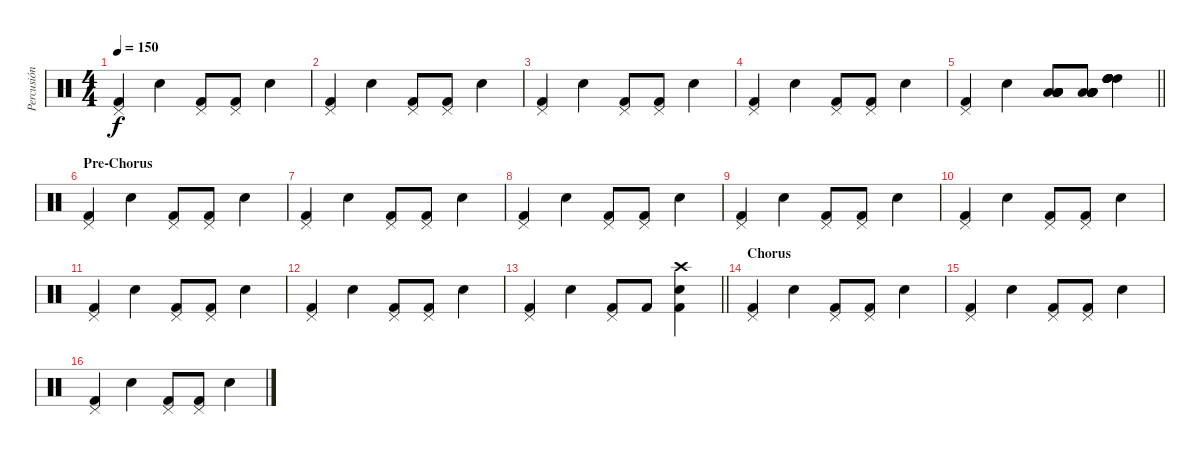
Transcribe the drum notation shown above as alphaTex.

\track ("Percusión" "Percusión") {instrument percussion}
\staff {score}
\articulation defaults
\ts (4 4)
\tempo 150
\clef neutral
\ks c
("Pedal Hi-Hat (hit)" "Kick (hit) 2").4{dy f} "Snare (hit) 2".4 ("Pedal Hi-Hat (hit)" "Kick (hit) 2").8 ("Pedal Hi-Hat (hit)" "Kick (hit) 2").8 "Snare (hit) 2".4 |
("Pedal Hi-Hat (hit)" "Kick (hit) 2").4 "Snare (hit) 2".4 ("Pedal Hi-Hat (hit)" "Kick (hit) 2").8 ("Pedal Hi-Hat (hit)" "Kick (hit) 2").8 "Snare (hit) 2".4 |
("Pedal Hi-Hat (hit)" "Kick (hit) 2").4 "Snare (hit) 2".4 ("Pedal Hi-Hat (hit)" "Kick (hit) 2").8 ("Pedal Hi-Hat (hit)" "Kick (hit) 2").8 "Snare (hit) 2".4 |
("Pedal Hi-Hat (hit)" "Kick (hit) 2").4 "Snare (hit) 2".4 ("Pedal Hi-Hat (hit)" "Kick (hit) 2").8 ("Pedal Hi-Hat (hit)" "Kick (hit) 2").8 "Snare (hit) 2".4 |
\barLineRight lightlight
("Pedal Hi-Hat (hit)" "Kick (hit) 2").4 "Snare (hit) 2".4 ("Low Tom (hit)" "Low Tom (hit)" "Low Tom (hit)" "Low Tom (hit)" "Low Tom (hit)" "Low Tom (hit)").8 ("Low Tom (hit)" "Low Tom (hit)" "Low Tom (hit)" "Low Tom (hit)" "Low Tom (hit)" "Low Tom (hit)").8 ("High Tom (hit)" "High Tom (hit)" "High Tom (hit)" "High Tom (hit)" "High Tom (hit)" "High Tom (hit)").4 |
\section ("" "Pre-Chorus")
("Pedal Hi-Hat (hit)" "Kick (hit) 2").4 "Snare (hit) 2".4 ("Pedal Hi-Hat (hit)" "Kick (hit) 2").8 ("Pedal Hi-Hat (hit)" "Kick (hit) 2").8 "Snare (hit) 2".4 |
("Pedal Hi-Hat (hit)" "Kick (hit) 2").4 "Snare (hit) 2".4 ("Pedal Hi-Hat (hit)" "Kick (hit) 2").8 ("Pedal Hi-Hat (hit)" "Kick (hit) 2").8 "Snare (hit) 2".4 |
("Pedal Hi-Hat (hit)" "Kick (hit) 2").4 "Snare (hit) 2".4 ("Pedal Hi-Hat (hit)" "Kick (hit) 2").8 ("Pedal Hi-Hat (hit)" "Kick (hit) 2").8 "Snare (hit) 2".4 |
("Pedal Hi-Hat (hit)" "Kick (hit) 2").4 "Snare (hit) 2".4 ("Pedal Hi-Hat (hit)" "Kick (hit) 2").8 ("Pedal Hi-Hat (hit)" "Kick (hit) 2").8 "Snare (hit) 2".4 |
("Pedal Hi-Hat (hit)" "Kick (hit) 2").4 "Snare (hit) 2".4 ("Pedal Hi-Hat (hit)" "Kick (hit) 2").8 ("Pedal Hi-Hat (hit)" "Kick (hit) 2").8 "Snare (hit) 2".4 |
("Pedal Hi-Hat (hit)" "Kick (hit) 2").4 "Snare (hit) 2".4 ("Pedal Hi-Hat (hit)" "Kick (hit) 2").8 ("Pedal Hi-Hat (hit)" "Kick (hit) 2").8 "Snare (hit) 2".4 |
("Pedal Hi-Hat (hit)" "Kick (hit) 2").4 "Snare (hit) 2".4 ("Pedal Hi-Hat (hit)" "Kick (hit) 2").8 ("Pedal Hi-Hat (hit)" "Kick (hit) 2").8 "Snare (hit) 2".4 |
\barLineRight lightlight
("Pedal Hi-Hat (hit)" "Kick (hit) 2").4 "Snare (hit) 2".4 ("Pedal Hi-Hat (hit)" "Kick (hit) 2").8 "Kick (hit) 2".8 ("Crash high (hit)" "Snare (hit) 2" "Kick (hit) 2").4 |
\section ("" "Chorus")
("Pedal Hi-Hat (hit)" "Kick (hit) 2").4 "Snare (hit) 2".4 ("Pedal Hi-Hat (hit)" "Kick (hit) 2").8 ("Pedal Hi-Hat (hit)" "Kick (hit) 2").8 "Snare (hit) 2".4 |
("Pedal Hi-Hat (hit)" "Kick (hit) 2").4 "Snare (hit) 2".4 ("Pedal Hi-Hat (hit)" "Kick (hit) 2").8 ("Pedal Hi-Hat (hit)" "Kick (hit) 2").8 "Snare (hit) 2".4 |
("Pedal Hi-Hat (hit)" "Kick (hit) 2").4 "Snare (hit) 2".4 ("Pedal Hi-Hat (hit)" "Kick (hit) 2").8 ("Pedal Hi-Hat (hit)" "Kick (hit) 2").8 "Snare (hit) 2".4
